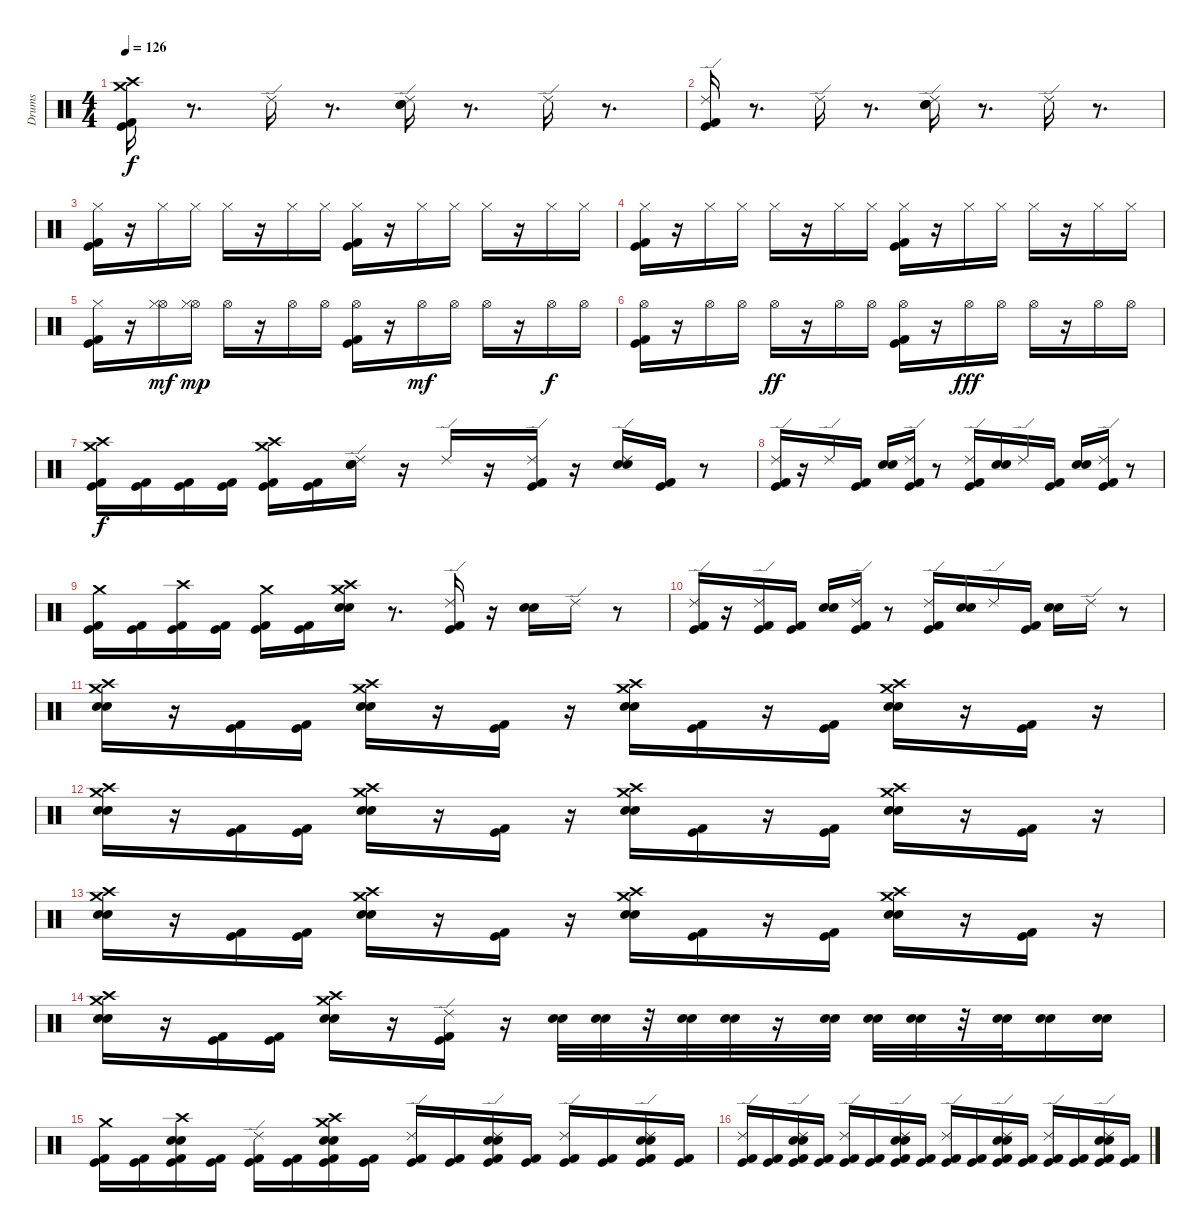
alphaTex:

\track ("Drums" "Drums") {instrument percussion}
\staff {score}
\articulation defaults
\ts (4 4)
\tempo 126
\clef neutral
\ks c
("Crash high (hit)" "Crash medium (hit)" "Kick (hit) 2" "Kick (hit)").16{dy f} r.8{d} "Ride (edge) 2".16 r.8{d} ("Electric Snare (hit)" "Snare (hit) 2" "Ride (edge) 2").16 r.8{d} "Ride (edge) 2".16 r.8{d} |
("Ride (edge) 2" "Kick (hit) 2" "Kick (hit)").16 r.8{d} "Ride (edge) 2".16 r.8{d} ("Ride (edge) 2" "Electric Snare (hit)" "Snare (hit) 2").16 r.8{d} "Ride (edge) 2".16 r.8{d} |
("Hi-Hat (closed)" "Kick (hit) 2" "Kick (hit)").16 r.16 "Hi-Hat (closed)".16 "Hi-Hat (closed)".16 "Hi-Hat (closed)".16 r.16 "Hi-Hat (closed)".16 "Hi-Hat (closed)".16 ("Kick (hit) 2" "Kick (hit)" "Hi-Hat (closed)").16 r.16 "Hi-Hat (closed)".16 "Hi-Hat (closed)".16 "Hi-Hat (closed)".16 r.16 "Hi-Hat (closed)".16 "Hi-Hat (closed)".16 |
("Hi-Hat (closed)" "Kick (hit) 2" "Kick (hit)").16 r.16 "Hi-Hat (closed)".16 "Hi-Hat (closed)".16 "Hi-Hat (closed)".16 r.16 "Hi-Hat (closed)".16 "Hi-Hat (closed)".16 ("Kick (hit) 2" "Kick (hit)" "Hi-Hat (closed)").16 r.16 "Hi-Hat (closed)".16 "Hi-Hat (closed)".16 "Hi-Hat (closed)".16 r.16 "Hi-Hat (closed)".16 "Hi-Hat (closed)".16 |
("Hi-Hat (closed)" "Kick (hit) 2" "Kick (hit)").16 r.16 ("Hi-Hat (open)" "Hi-Hat (closed)").16{dy mf} ("Hi-Hat (open)" "Hi-Hat (closed)").16{dy mp} "Hi-Hat (open)".16 r.16 "Hi-Hat (open)".16 "Hi-Hat (open)".16 ("Hi-Hat (open)" "Kick (hit) 2" "Kick (hit)").16 r.16 "Hi-Hat (open)".16{dy mf} "Hi-Hat (open)".16 "Hi-Hat (open)".16 r.16 "Hi-Hat (open)".16{dy f} "Hi-Hat (open)".16 |
("Kick (hit)" "Hi-Hat (open)" "Kick (hit) 2").16 r.16 "Hi-Hat (open)".16 "Hi-Hat (open)".16 "Hi-Hat (open)".16{dy ff} r.16 "Hi-Hat (open)".16 "Hi-Hat (open)".16 ("Hi-Hat (open)" "Kick (hit) 2" "Kick (hit)").16 r.16 "Hi-Hat (open)".16{dy fff} "Hi-Hat (open)".16 "Hi-Hat (open)".16 r.16 "Hi-Hat (open)".16 "Hi-Hat (open)".16 |
("Crash high (hit)" "Crash medium (hit)" "Kick (hit) 2" "Kick (hit)").16{dy f} ("Kick (hit) 2" "Kick (hit)").16 ("Kick (hit) 2" "Kick (hit)").16 ("Kick (hit) 2" "Kick (hit)").16 ("Crash medium (hit)" "Crash high (hit)" "Kick (hit) 2" "Kick (hit)").16 ("Kick (hit) 2" "Kick (hit)").16 ("Ride (edge) 2" "Electric Snare (hit)" "Snare (hit) 2").16 r.16 "Ride (edge) 2".16 r.16 ("Kick (hit) 2" "Kick (hit)" "Ride (edge) 2").16 r.16 ("Electric Snare (hit)" "Snare (hit) 2" "Ride (edge) 2").16 ("Kick (hit) 2" "Kick (hit)").16 r.8 |
("Kick (hit) 2" "Kick (hit)" "Ride (edge) 2").16 r.16 "Ride (edge) 2".16 ("Kick (hit) 2" "Kick (hit)").16 ("Electric Snare (hit)" "Snare (hit) 2").16 ("Ride (edge) 2" "Kick (hit) 2" "Kick (hit)").16 r.8 ("Kick (hit) 2" "Kick (hit)" "Ride (edge) 2").16 ("Electric Snare (hit)" "Snare (hit) 2").16 "Ride (edge) 2".16 ("Kick (hit) 2" "Kick (hit)").16 ("Electric Snare (hit)" "Snare (hit) 2").16 ("Ride (edge) 2" "Kick (hit)" "Kick (hit) 2").16 r.8 |
("Crash medium (hit)" "Kick (hit) 2" "Kick (hit)").16 ("Kick (hit) 2" "Kick (hit)").16 ("Crash high (hit)" "Kick (hit) 2" "Kick (hit)").16 ("Kick (hit) 2" "Kick (hit)").16 ("Crash medium (hit)" "Kick (hit) 2" "Kick (hit)").16 ("Kick (hit) 2" "Kick (hit)").16 ("Electric Snare (hit)" "Snare (hit) 2" "Crash high (hit)" "Crash medium (hit)").16 r.8{d} ("Kick (hit) 2" "Kick (hit)" "Ride (edge) 2").16 r.16 ("Electric Snare (hit)" "Snare (hit) 2").16 "Ride (edge) 2".16 r.8 |
("Ride (edge) 2" "Kick (hit) 2" "Kick (hit)").16 r.16 ("Ride (edge) 2" "Kick (hit) 2" "Kick (hit)").16 ("Kick (hit) 2" "Kick (hit)").16 ("Electric Snare (hit)" "Snare (hit) 2").16 ("Ride (edge) 2" "Kick (hit) 2" "Kick (hit)").16 r.8 ("Kick (hit) 2" "Kick (hit)" "Ride (edge) 2").16 ("Electric Snare (hit)" "Snare (hit) 2").16 "Ride (edge) 2".16 ("Kick (hit) 2" "Kick (hit)").16 ("Electric Snare (hit)" "Snare (hit) 2").16 "Ride (edge) 2".16 r.8 |
("Crash high (hit)" "Crash medium (hit)" "Electric Snare (hit)" "Snare (hit) 2").16 r.16 ("Kick (hit) 2" "Kick (hit)").16 ("Kick (hit) 2" "Kick (hit)").16 ("Electric Snare (hit)" "Snare (hit) 2" "Crash high (hit)" "Crash medium (hit)").16 r.16 ("Kick (hit) 2" "Kick (hit)").16 r.16 ("Electric Snare (hit)" "Snare (hit) 2" "Crash high (hit)" "Crash medium (hit)").16 ("Kick (hit) 2" "Kick (hit)").16 r.16 ("Kick (hit) 2" "Kick (hit)").16 ("Electric Snare (hit)" "Snare (hit) 2" "Crash high (hit)" "Crash medium (hit)").16 r.16 ("Kick (hit)" "Kick (hit) 2").16 r.16 |
("Crash high (hit)" "Crash medium (hit)" "Electric Snare (hit)" "Snare (hit) 2").16 r.16 ("Kick (hit) 2" "Kick (hit)").16 ("Kick (hit) 2" "Kick (hit)").16 ("Electric Snare (hit)" "Snare (hit) 2" "Crash high (hit)" "Crash medium (hit)").16 r.16 ("Kick (hit) 2" "Kick (hit)").16 r.16 ("Electric Snare (hit)" "Snare (hit) 2" "Crash high (hit)" "Crash medium (hit)").16 ("Kick (hit) 2" "Kick (hit)").16 r.16 ("Kick (hit) 2" "Kick (hit)").16 ("Electric Snare (hit)" "Snare (hit) 2" "Crash high (hit)" "Crash medium (hit)").16 r.16 ("Kick (hit)" "Kick (hit) 2").16 r.16 |
("Crash high (hit)" "Crash medium (hit)" "Electric Snare (hit)" "Snare (hit) 2").16 r.16 ("Kick (hit) 2" "Kick (hit)").16 ("Kick (hit) 2" "Kick (hit)").16 ("Electric Snare (hit)" "Snare (hit) 2" "Crash high (hit)" "Crash medium (hit)").16 r.16 ("Kick (hit) 2" "Kick (hit)").16 r.16 ("Electric Snare (hit)" "Snare (hit) 2" "Crash high (hit)" "Crash medium (hit)").16 ("Kick (hit) 2" "Kick (hit)").16 r.16 ("Kick (hit) 2" "Kick (hit)").16 ("Electric Snare (hit)" "Snare (hit) 2" "Crash high (hit)" "Crash medium (hit)").16 r.16 ("Kick (hit)" "Kick (hit) 2").16 r.16 |
("Crash high (hit)" "Crash medium (hit)" "Electric Snare (hit)" "Snare (hit) 2").16 r.16 ("Kick (hit) 2" "Kick (hit)").16 ("Kick (hit) 2" "Kick (hit)").16 ("Crash high (hit)" "Crash medium (hit)" "Electric Snare (hit)" "Snare (hit) 2").16 r.16 ("Ride (edge) 2" "Kick (hit) 2" "Kick (hit)").16 r.16 ("Electric Snare (hit)" "Snare (hit) 2").32 ("Electric Snare (hit)" "Snare (hit) 2").32 r.32 ("Electric Snare (hit)" "Snare (hit) 2").32 ("Electric Snare (hit)" "Snare (hit) 2").32 r.16 ("Electric Snare (hit)" "Snare (hit) 2").32 ("Electric Snare (hit)" "Snare (hit) 2").32 ("Electric Snare (hit)" "Snare (hit) 2").32 r.32 ("Electric Snare (hit)" "Snare (hit) 2").32 ("Electric Snare (hit)" "Snare (hit) 2").16 ("Electric Snare (hit)" "Snare (hit) 2").16 |
("Crash medium (hit)" "Kick (hit) 2" "Kick (hit)").16 ("Kick (hit) 2" "Kick (hit)").16 ("Crash high (hit)" "Electric Snare (hit)" "Snare (hit) 2" "Kick (hit) 2" "Kick (hit)").16 ("Kick (hit) 2" "Kick (hit)").16 ("Ride (edge) 2" "Kick (hit) 2" "Kick (hit)").16 ("Kick (hit) 2" "Kick (hit)").16 ("Crash medium (hit)" "Crash high (hit)" "Electric Snare (hit)" "Snare (hit) 2" "Kick (hit) 2" "Kick (hit)").16 ("Kick (hit) 2" "Kick (hit)").16 ("Ride (edge) 2" "Kick (hit) 2" "Kick (hit)").16 ("Kick (hit) 2" "Kick (hit)").16 ("Electric Snare (hit)" "Snare (hit) 2" "Ride (edge) 2" "Kick (hit) 2" "Kick (hit)").16 ("Kick (hit) 2" "Kick (hit)").16 ("Ride (edge) 2" "Kick (hit) 2" "Kick (hit)").16 ("Kick (hit) 2" "Kick (hit)").16 ("Electric Snare (hit)" "Snare (hit) 2" "Ride (edge) 2" "Kick (hit) 2" "Kick (hit)").16 ("Kick (hit) 2" "Kick (hit)").16 |
("Ride (edge) 2" "Kick (hit) 2" "Kick (hit)").16 ("Kick (hit) 2" "Kick (hit)").16 ("Electric Snare (hit)" "Snare (hit) 2" "Ride (edge) 2" "Kick (hit) 2" "Kick (hit)").16 ("Kick (hit) 2" "Kick (hit)").16 ("Ride (edge) 2" "Kick (hit) 2" "Kick (hit)").16 ("Kick (hit) 2" "Kick (hit)").16 ("Electric Snare (hit)" "Snare (hit) 2" "Ride (edge) 2" "Kick (hit) 2" "Kick (hit)").16 ("Kick (hit) 2" "Kick (hit)").16 ("Ride (edge) 2" "Kick (hit) 2" "Kick (hit)").16 ("Kick (hit) 2" "Kick (hit)").16 ("Electric Snare (hit)" "Snare (hit) 2" "Ride (edge) 2" "Kick (hit) 2" "Kick (hit)").16 ("Kick (hit) 2" "Kick (hit)").16 ("Ride (edge) 2" "Kick (hit) 2" "Kick (hit)").16 ("Kick (hit) 2" "Kick (hit)").16 ("Electric Snare (hit)" "Snare (hit) 2" "Ride (edge) 2" "Kick (hit) 2" "Kick (hit)").16 ("Kick (hit) 2" "Kick (hit)").16
